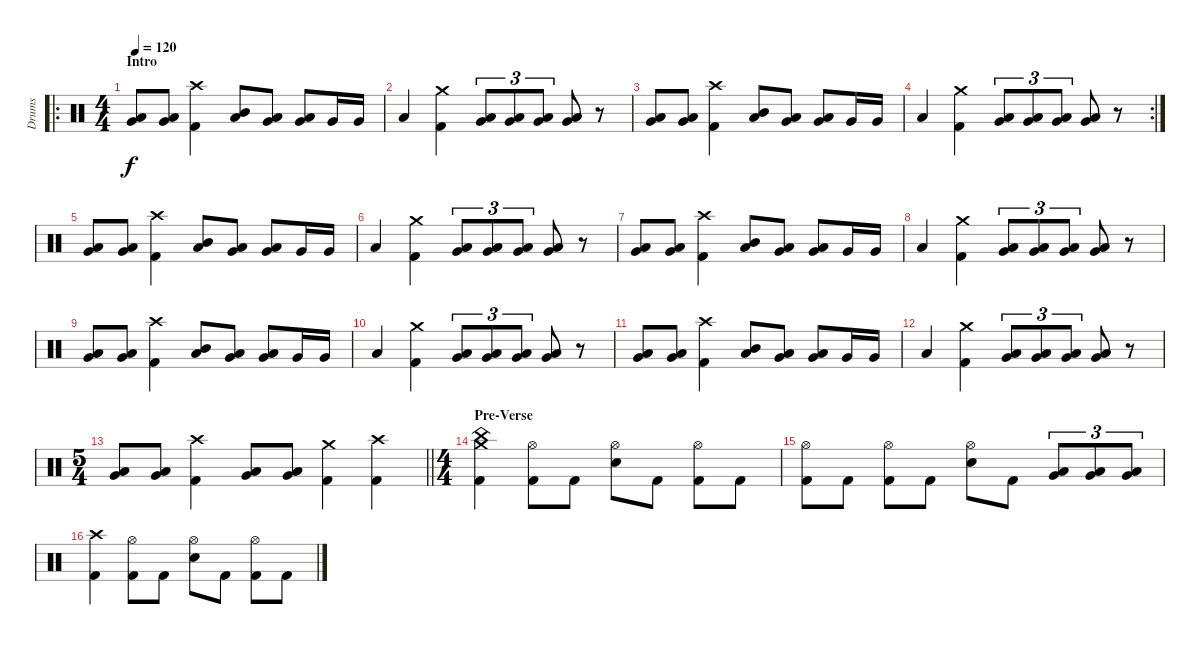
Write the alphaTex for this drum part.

\track ("Drums" "Drums") {instrument percussion}
\staff {score}
\articulation defaults
\ro
\ts (4 4)
\section ("" "Intro")
\tempo 120
\clef neutral
\ks c
("Low Tom (hit)" "Very Low Tom (hit)").8{dy f} ("Low Tom (hit)" "Very Low Tom (hit)").8 ("Crash high (hit)" "Kick (hit) 2").4 ("Mid Tom (hit)" "Low Tom (hit)").8 ("Low Tom (hit)" "Very Low Tom (hit)").8 ("Low Tom (hit)" "Very Low Tom (hit)").8 "Very Low Tom (hit)".16 "Very Low Tom (hit)".16 |
"Low Tom (hit)".4 ("Crash medium (hit)" "Kick (hit) 2").4 ("Low Tom (hit)" "Very Low Tom (hit)").8{tu (3 2)} ("Low Tom (hit)" "Very Low Tom (hit)").8{tu (3 2)} ("Low Tom (hit)" "Very Low Tom (hit)").8{tu (3 2)} ("Low Tom (hit)" "Very Low Tom (hit)").8 r.8 |
("Low Tom (hit)" "Very Low Tom (hit)").8 ("Low Tom (hit)" "Very Low Tom (hit)").8 ("Crash high (hit)" "Kick (hit) 2").4 ("Mid Tom (hit)" "Low Tom (hit)").8 ("Low Tom (hit)" "Very Low Tom (hit)").8 ("Low Tom (hit)" "Very Low Tom (hit)").8 "Very Low Tom (hit)".16 "Very Low Tom (hit)".16 |
\rc 2 "Low Tom (hit)".4
("Crash medium (hit)" "Kick (hit) 2").4 ("Low Tom (hit)" "Very Low Tom (hit)").8{tu (3 2)} ("Low Tom (hit)" "Very Low Tom (hit)").8{tu (3 2)} ("Low Tom (hit)" "Very Low Tom (hit)").8{tu (3 2)} ("Low Tom (hit)" "Very Low Tom (hit)").8 r.8 |
("Low Tom (hit)" "Very Low Tom (hit)").8 ("Low Tom (hit)" "Very Low Tom (hit)").8 ("Crash high (hit)" "Kick (hit) 2").4 ("Mid Tom (hit)" "Low Tom (hit)").8 ("Low Tom (hit)" "Very Low Tom (hit)").8 ("Low Tom (hit)" "Very Low Tom (hit)").8 "Very Low Tom (hit)".16 "Very Low Tom (hit)".16 |
"Low Tom (hit)".4 ("Crash medium (hit)" "Kick (hit) 2").4 ("Low Tom (hit)" "Very Low Tom (hit)").8{tu (3 2)} ("Low Tom (hit)" "Very Low Tom (hit)").8{tu (3 2)} ("Low Tom (hit)" "Very Low Tom (hit)").8{tu (3 2)} ("Low Tom (hit)" "Very Low Tom (hit)").8 r.8 |
("Low Tom (hit)" "Very Low Tom (hit)").8 ("Low Tom (hit)" "Very Low Tom (hit)").8 ("Crash high (hit)" "Kick (hit) 2").4 ("Mid Tom (hit)" "Low Tom (hit)").8 ("Low Tom (hit)" "Very Low Tom (hit)").8 ("Low Tom (hit)" "Very Low Tom (hit)").8 "Very Low Tom (hit)".16 "Very Low Tom (hit)".16 |
"Low Tom (hit)".4 ("Crash medium (hit)" "Kick (hit) 2").4 ("Low Tom (hit)" "Very Low Tom (hit)").8{tu (3 2)} ("Low Tom (hit)" "Very Low Tom (hit)").8{tu (3 2)} ("Low Tom (hit)" "Very Low Tom (hit)").8{tu (3 2)} ("Low Tom (hit)" "Very Low Tom (hit)").8 r.8 |
("Low Tom (hit)" "Very Low Tom (hit)").8 ("Low Tom (hit)" "Very Low Tom (hit)").8 ("Crash high (hit)" "Kick (hit) 2").4 ("Mid Tom (hit)" "Low Tom (hit)").8 ("Low Tom (hit)" "Very Low Tom (hit)").8 ("Low Tom (hit)" "Very Low Tom (hit)").8 "Very Low Tom (hit)".16 "Very Low Tom (hit)".16 |
"Low Tom (hit)".4 ("Crash medium (hit)" "Kick (hit) 2").4 ("Low Tom (hit)" "Very Low Tom (hit)").8{tu (3 2)} ("Low Tom (hit)" "Very Low Tom (hit)").8{tu (3 2)} ("Low Tom (hit)" "Very Low Tom (hit)").8{tu (3 2)} ("Low Tom (hit)" "Very Low Tom (hit)").8 r.8 |
("Low Tom (hit)" "Very Low Tom (hit)").8 ("Low Tom (hit)" "Very Low Tom (hit)").8 ("Crash high (hit)" "Kick (hit) 2").4 ("Mid Tom (hit)" "Low Tom (hit)").8 ("Low Tom (hit)" "Very Low Tom (hit)").8 ("Low Tom (hit)" "Very Low Tom (hit)").8 "Very Low Tom (hit)".16 "Very Low Tom (hit)".16 |
"Low Tom (hit)".4 ("Crash medium (hit)" "Kick (hit) 2").4 ("Low Tom (hit)" "Very Low Tom (hit)").8{tu (3 2)} ("Low Tom (hit)" "Very Low Tom (hit)").8{tu (3 2)} ("Low Tom (hit)" "Very Low Tom (hit)").8{tu (3 2)} ("Low Tom (hit)" "Very Low Tom (hit)").8 r.8 |
\ts (5 4)
\barLineRight lightlight
("Low Tom (hit)" "Very Low Tom (hit)").8 ("Low Tom (hit)" "Very Low Tom (hit)").8 ("Crash high (hit)" "Kick (hit) 2").4 ("Low Tom (hit)" "Very Low Tom (hit)").8 ("Low Tom (hit)" "Very Low Tom (hit)").8 ("Crash medium (hit)" "Kick (hit) 2").4 ("Crash high (hit)" "Kick (hit) 2").4 |
\ts (4 4)
\section ("" "Pre-Verse")
("Crash medium (hit)" "China (hit)" "Kick (hit) 2").4 ("Hi-Hat (open)" "Kick (hit) 2").8 "Kick (hit) 2".8 ("Hi-Hat (open)" "Electric Snare (hit)").8 "Kick (hit) 2".8 ("Hi-Hat (open)" "Kick (hit) 2").8 "Kick (hit) 2".8 |
("Hi-Hat (open)" "Kick (hit) 2").8 "Kick (hit) 2".8 ("Hi-Hat (open)" "Kick (hit) 2").8 "Kick (hit) 2".8 ("Hi-Hat (open)" "Electric Snare (hit)").8 "Kick (hit) 2".8 ("Low Tom (hit)" "Very Low Tom (hit)").8{tu (3 2)} ("Low Tom (hit)" "Very Low Tom (hit)").8{tu (3 2)} ("Low Tom (hit)" "Very Low Tom (hit)").8{tu (3 2)} |
("Crash high (hit)" "Kick (hit) 2").4 ("Hi-Hat (open)" "Kick (hit) 2").8 "Kick (hit) 2".8 ("Hi-Hat (open)" "Electric Snare (hit)").8 "Kick (hit) 2".8 ("Hi-Hat (open)" "Kick (hit) 2").8 "Kick (hit) 2".8
